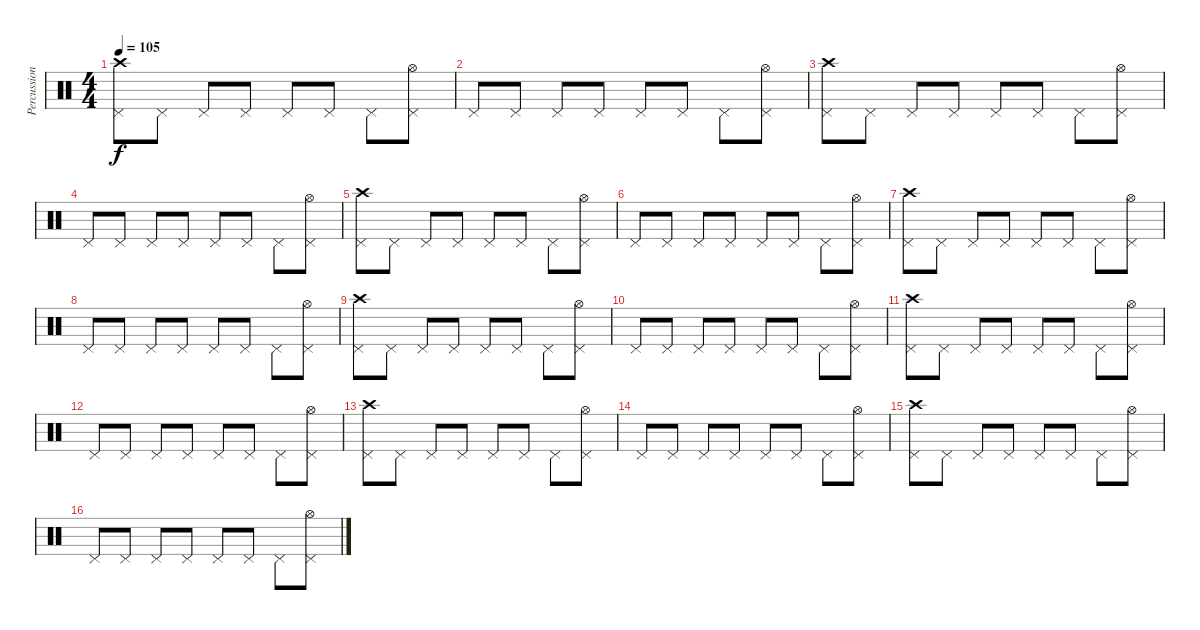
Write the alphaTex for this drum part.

\track ("Percussion" "Percussion") {instrument percussion}
\staff {score}
\articulation defaults
\ts (4 4)
\tempo 105
\clef neutral
\ks c
("Pedal Hi-Hat (hit)" "Crash high (hit)").8{dy f} "Pedal Hi-Hat (hit)".8 "Pedal Hi-Hat (hit)".8 "Pedal Hi-Hat (hit)".8 "Pedal Hi-Hat (hit)".8 "Pedal Hi-Hat (hit)".8 "Pedal Hi-Hat (hit)".8 ("Pedal Hi-Hat (hit)" "Hi-Hat (open)").8 |
"Pedal Hi-Hat (hit)".8 "Pedal Hi-Hat (hit)".8 "Pedal Hi-Hat (hit)".8 "Pedal Hi-Hat (hit)".8 "Pedal Hi-Hat (hit)".8 "Pedal Hi-Hat (hit)".8 "Pedal Hi-Hat (hit)".8 ("Pedal Hi-Hat (hit)" "Hi-Hat (open)").8 |
("Pedal Hi-Hat (hit)" "Crash high (hit)").8 "Pedal Hi-Hat (hit)".8 "Pedal Hi-Hat (hit)".8 "Pedal Hi-Hat (hit)".8 "Pedal Hi-Hat (hit)".8 "Pedal Hi-Hat (hit)".8 "Pedal Hi-Hat (hit)".8 ("Pedal Hi-Hat (hit)" "Hi-Hat (open)").8 |
"Pedal Hi-Hat (hit)".8 "Pedal Hi-Hat (hit)".8 "Pedal Hi-Hat (hit)".8 "Pedal Hi-Hat (hit)".8 "Pedal Hi-Hat (hit)".8 "Pedal Hi-Hat (hit)".8 "Pedal Hi-Hat (hit)".8 ("Pedal Hi-Hat (hit)" "Hi-Hat (open)").8 |
("Pedal Hi-Hat (hit)" "Crash high (hit)").8 "Pedal Hi-Hat (hit)".8 "Pedal Hi-Hat (hit)".8 "Pedal Hi-Hat (hit)".8 "Pedal Hi-Hat (hit)".8 "Pedal Hi-Hat (hit)".8 "Pedal Hi-Hat (hit)".8 ("Pedal Hi-Hat (hit)" "Hi-Hat (open)").8 |
"Pedal Hi-Hat (hit)".8 "Pedal Hi-Hat (hit)".8 "Pedal Hi-Hat (hit)".8 "Pedal Hi-Hat (hit)".8 "Pedal Hi-Hat (hit)".8 "Pedal Hi-Hat (hit)".8 "Pedal Hi-Hat (hit)".8 ("Pedal Hi-Hat (hit)" "Hi-Hat (open)").8 |
("Pedal Hi-Hat (hit)" "Crash high (hit)").8 "Pedal Hi-Hat (hit)".8 "Pedal Hi-Hat (hit)".8 "Pedal Hi-Hat (hit)".8 "Pedal Hi-Hat (hit)".8 "Pedal Hi-Hat (hit)".8 "Pedal Hi-Hat (hit)".8 ("Pedal Hi-Hat (hit)" "Hi-Hat (open)").8 |
"Pedal Hi-Hat (hit)".8 "Pedal Hi-Hat (hit)".8 "Pedal Hi-Hat (hit)".8 "Pedal Hi-Hat (hit)".8 "Pedal Hi-Hat (hit)".8 "Pedal Hi-Hat (hit)".8 "Pedal Hi-Hat (hit)".8 ("Pedal Hi-Hat (hit)" "Hi-Hat (open)").8 |
("Pedal Hi-Hat (hit)" "Crash high (hit)").8 "Pedal Hi-Hat (hit)".8 "Pedal Hi-Hat (hit)".8 "Pedal Hi-Hat (hit)".8 "Pedal Hi-Hat (hit)".8 "Pedal Hi-Hat (hit)".8 "Pedal Hi-Hat (hit)".8 ("Pedal Hi-Hat (hit)" "Hi-Hat (open)").8 |
"Pedal Hi-Hat (hit)".8 "Pedal Hi-Hat (hit)".8 "Pedal Hi-Hat (hit)".8 "Pedal Hi-Hat (hit)".8 "Pedal Hi-Hat (hit)".8 "Pedal Hi-Hat (hit)".8 "Pedal Hi-Hat (hit)".8 ("Pedal Hi-Hat (hit)" "Hi-Hat (open)").8 |
("Pedal Hi-Hat (hit)" "Crash high (hit)").8 "Pedal Hi-Hat (hit)".8 "Pedal Hi-Hat (hit)".8 "Pedal Hi-Hat (hit)".8 "Pedal Hi-Hat (hit)".8 "Pedal Hi-Hat (hit)".8 "Pedal Hi-Hat (hit)".8 ("Pedal Hi-Hat (hit)" "Hi-Hat (open)").8 |
"Pedal Hi-Hat (hit)".8 "Pedal Hi-Hat (hit)".8 "Pedal Hi-Hat (hit)".8 "Pedal Hi-Hat (hit)".8 "Pedal Hi-Hat (hit)".8 "Pedal Hi-Hat (hit)".8 "Pedal Hi-Hat (hit)".8 ("Pedal Hi-Hat (hit)" "Hi-Hat (open)").8 |
("Pedal Hi-Hat (hit)" "Crash high (hit)").8 "Pedal Hi-Hat (hit)".8 "Pedal Hi-Hat (hit)".8 "Pedal Hi-Hat (hit)".8 "Pedal Hi-Hat (hit)".8 "Pedal Hi-Hat (hit)".8 "Pedal Hi-Hat (hit)".8 ("Pedal Hi-Hat (hit)" "Hi-Hat (open)").8 |
"Pedal Hi-Hat (hit)".8 "Pedal Hi-Hat (hit)".8 "Pedal Hi-Hat (hit)".8 "Pedal Hi-Hat (hit)".8 "Pedal Hi-Hat (hit)".8 "Pedal Hi-Hat (hit)".8 "Pedal Hi-Hat (hit)".8 ("Pedal Hi-Hat (hit)" "Hi-Hat (open)").8 |
("Pedal Hi-Hat (hit)" "Crash high (hit)").8 "Pedal Hi-Hat (hit)".8 "Pedal Hi-Hat (hit)".8 "Pedal Hi-Hat (hit)".8 "Pedal Hi-Hat (hit)".8 "Pedal Hi-Hat (hit)".8 "Pedal Hi-Hat (hit)".8 ("Pedal Hi-Hat (hit)" "Hi-Hat (open)").8 |
"Pedal Hi-Hat (hit)".8 "Pedal Hi-Hat (hit)".8 "Pedal Hi-Hat (hit)".8 "Pedal Hi-Hat (hit)".8 "Pedal Hi-Hat (hit)".8 "Pedal Hi-Hat (hit)".8 "Pedal Hi-Hat (hit)".8 ("Pedal Hi-Hat (hit)" "Hi-Hat (open)").8
